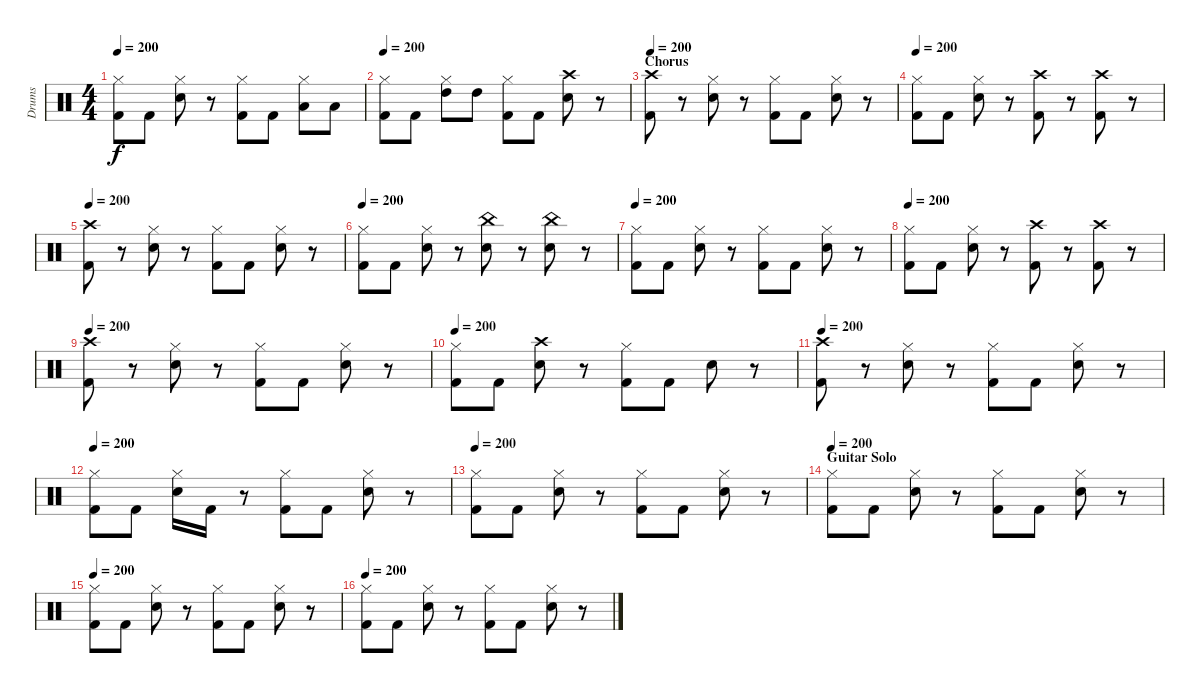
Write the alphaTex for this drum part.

\track ("Drums" "Drums") {instrument percussion}
\staff {score}
\articulation defaults
\ts (4 4)
\tempo 200
\clef neutral
\ks c
("Hi-Hat (closed)" "Kick (hit) 2").8{dy f} "Kick (hit) 2".8 ("Snare (hit) 2" "Hi-Hat (closed)").8 r.8 ("Hi-Hat (closed)" "Kick (hit) 2").8 "Kick (hit) 2".8 ("Low Tom (hit)" "Hi-Hat (closed)").8 "Low Tom (hit)".8 |
\tempo 200
("Hi-Hat (closed)" "Kick (hit) 2").8 "Kick (hit) 2".8 ("High Tom (hit)" "Hi-Hat (closed)").8 "High Tom (hit)".8 ("Kick (hit) 2" "Hi-Hat (closed)").8 "Kick (hit) 2".8 ("Crash high (hit)" "Snare (hit) 2").8 r.8 |
\section ("" "Chorus")
\tempo 200
("Kick (hit) 2" "Crash high (hit)").8 r.8 ("Hi-Hat (closed)" "Snare (hit) 2").8 r.8 ("Hi-Hat (closed)" "Kick (hit) 2").8 "Kick (hit) 2".8 ("Hi-Hat (closed)" "Snare (hit) 2").8 r.8 |
\tempo 200
("Hi-Hat (closed)" "Kick (hit) 2").8 "Kick (hit) 2".8 ("Snare (hit) 2" "Hi-Hat (closed)").8 r.8 ("Crash high (hit)" "Kick (hit) 2").8 r.8 ("Crash high (hit)" "Kick (hit) 2").8 r.8 |
\tempo 200
("Kick (hit) 2" "Crash high (hit)").8 r.8 ("Hi-Hat (closed)" "Snare (hit) 2").8 r.8 ("Kick (hit) 2" "Hi-Hat (closed)").8 "Kick (hit) 2".8 ("Snare (hit) 2" "Hi-Hat (closed)").8 r.8 |
\tempo 200
("Kick (hit) 2" "Hi-Hat (closed)").8 "Kick (hit) 2".8 ("Snare (hit) 2" "Hi-Hat (closed)").8 r.8 ("China (hit)" "Snare (hit) 2").8 r.8 ("China (hit)" "Snare (hit) 2").8 r.8 |
\tempo 200
("Hi-Hat (closed)" "Kick (hit) 2").8 "Kick (hit) 2".8 ("Hi-Hat (closed)" "Snare (hit) 2").8 r.8 ("Hi-Hat (closed)" "Kick (hit) 2").8 "Kick (hit) 2".8 ("Hi-Hat (closed)" "Snare (hit) 2").8 r.8 |
\tempo 200
("Hi-Hat (closed)" "Kick (hit) 2").8 "Kick (hit) 2".8 ("Snare (hit) 2" "Hi-Hat (closed)").8 r.8 ("Crash high (hit)" "Kick (hit) 2").8 r.8 ("Crash high (hit)" "Kick (hit) 2").8 r.8 |
\tempo 200
("Kick (hit) 2" "Crash high (hit)").8 r.8 ("Hi-Hat (closed)" "Snare (hit) 2").8 r.8 ("Kick (hit) 2" "Hi-Hat (closed)").8 "Kick (hit) 2".8 ("Snare (hit) 2" "Hi-Hat (closed)").8 r.8 |
\tempo 200
("Hi-Hat (closed)" "Kick (hit) 2").8 "Kick (hit) 2".8 ("Crash high (hit)" "Snare (hit) 2").8 r.8 ("Hi-Hat (closed)" "Kick (hit) 2").8 "Kick (hit) 2".8 "Snare (hit) 2".8 r.8 |
\tempo 200
("Kick (hit) 2" "Crash high (hit)").8 r.8 ("Hi-Hat (closed)" "Snare (hit) 2").8 r.8 ("Kick (hit) 2" "Hi-Hat (closed)").8 "Kick (hit) 2".8 ("Snare (hit) 2" "Hi-Hat (closed)").8 r.8 |
\tempo 200
("Kick (hit) 2" "Hi-Hat (closed)").8 "Kick (hit) 2".8 ("Snare (hit) 2" "Hi-Hat (closed)").16 "Kick (hit) 2".16 r.8 ("Kick (hit) 2" "Hi-Hat (closed)").8 "Kick (hit) 2".8 ("Snare (hit) 2" "Hi-Hat (closed)").8 r.8 |
\tempo 200
("Kick (hit) 2" "Hi-Hat (closed)").8 "Kick (hit) 2".8 ("Snare (hit) 2" "Hi-Hat (closed)").8 r.8 ("Kick (hit) 2" "Hi-Hat (closed)").8 "Kick (hit) 2".8 ("Snare (hit) 2" "Hi-Hat (closed)").8 r.8 |
\section ("" "Guitar Solo")
\tempo 200
("Kick (hit) 2" "Hi-Hat (closed)").8 "Kick (hit) 2".8 ("Snare (hit) 2" "Hi-Hat (closed)").8 r.8 ("Kick (hit) 2" "Hi-Hat (closed)").8 "Kick (hit) 2".8 ("Snare (hit) 2" "Hi-Hat (closed)").8 r.8 |
\tempo 200
("Kick (hit) 2" "Hi-Hat (closed)").8 "Kick (hit) 2".8 ("Snare (hit) 2" "Hi-Hat (closed)").8 r.8 ("Kick (hit) 2" "Hi-Hat (closed)").8 "Kick (hit) 2".8 ("Snare (hit) 2" "Hi-Hat (closed)").8 r.8 |
\tempo 200
("Kick (hit) 2" "Hi-Hat (closed)").8 "Kick (hit) 2".8 ("Snare (hit) 2" "Hi-Hat (closed)").8 r.8 ("Kick (hit) 2" "Hi-Hat (closed)").8 "Kick (hit) 2".8 ("Snare (hit) 2" "Hi-Hat (closed)").8 r.8
